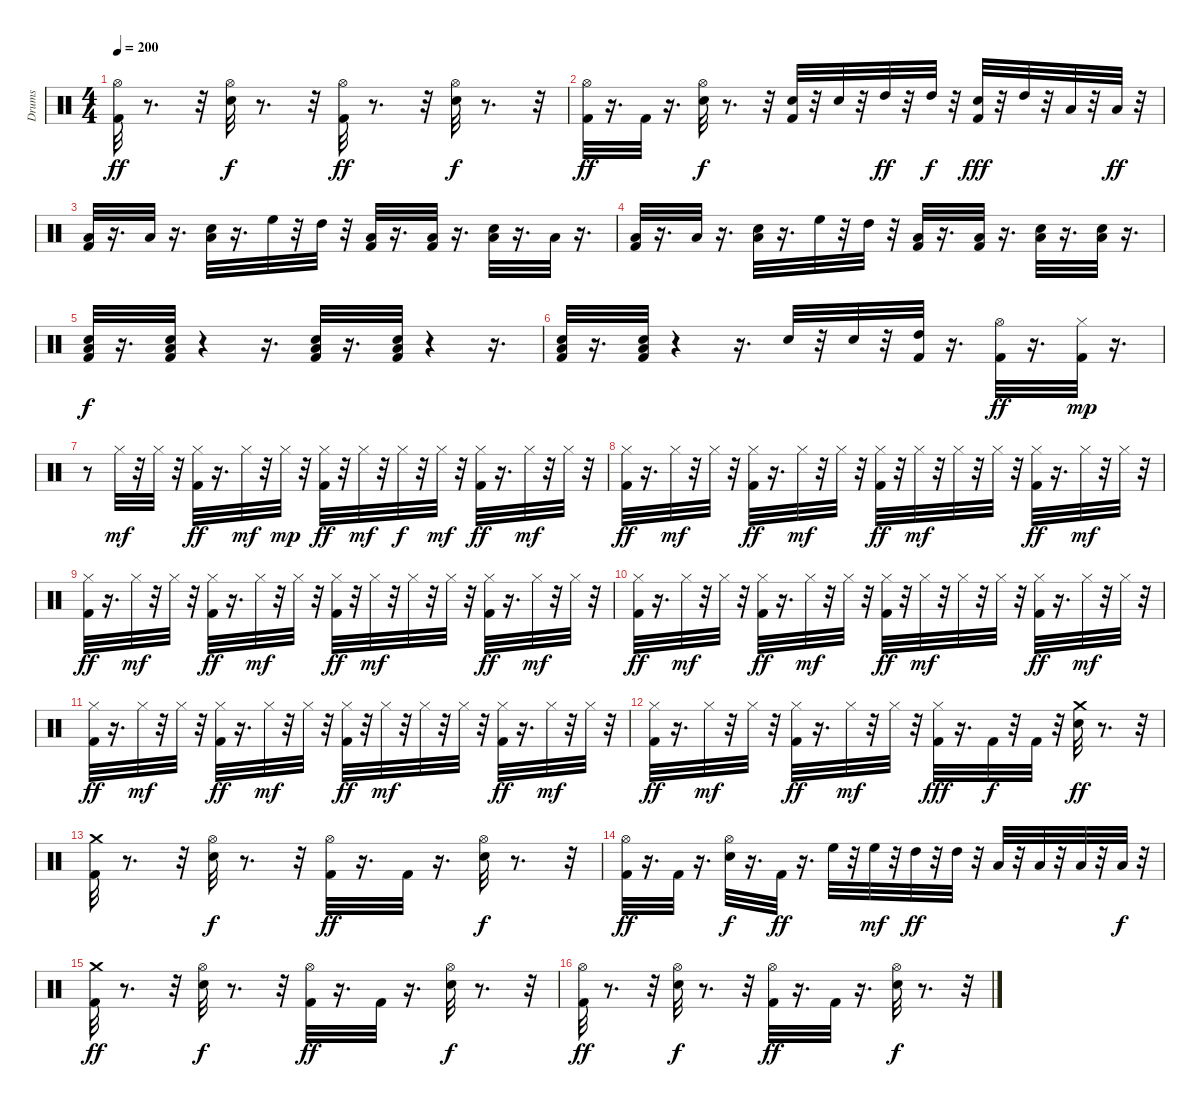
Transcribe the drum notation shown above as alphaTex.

\track ("Drums" "Drums") {instrument percussion}
\staff {score}
\articulation defaults
\ts (4 4)
\tempo 200
\clef neutral
\ks c
("Hi-Hat (open)" "Kick (hit) 2").32{dy ff} r.8{d} r.32 ("Hi-Hat (open)" "Snare (hit) 2").32{dy f} r.8{d} r.32 ("Hi-Hat (open)" "Kick (hit) 2").32{dy ff} r.8{d} r.32 ("Hi-Hat (open)" "Snare (hit) 2").32{dy f} r.8{d} r.32 |
("Kick (hit) 2" "Hi-Hat (open)").32{dy ff} r.16{d} "Kick (hit) 2".32 r.16{d} ("Hi-Hat (open)" "Snare (hit) 2").32{dy f} r.8{d} r.32 ("Snare (hit) 2" "Kick (hit) 2").32 r.32 "Snare (hit) 2".32 r.32 "High Tom (hit)".32{dy ff} r.32 "High Tom (hit)".32{dy f} r.32 ("Snare (hit) 2" "Kick (hit) 2").32{dy fff} r.32 "High Tom (hit)".32 r.32 "Low Floor Tom (hit)".32 r.32 "Low Floor Tom (hit)".32{dy ff} r.32 |
("Low Floor Tom (hit)" "Kick (hit) 2").32 r.16{d} "Low Floor Tom (hit)".32 r.16{d} ("Low Floor Tom (hit)" "Snare (hit) 2").32 r.16{d} "High Floor Tom (hit)".32 r.32 "High Tom (hit)".32 r.32 ("Low Floor Tom (hit)" "Kick (hit) 2").32 r.16{d} ("Low Floor Tom (hit)" "Kick (hit) 2").32 r.16{d} ("Low Floor Tom (hit)" "Snare (hit) 2").32 r.16{d} "Low Floor Tom (hit)".32 r.16{d} |
("Low Floor Tom (hit)" "Kick (hit) 2").32 r.16{d} "Low Floor Tom (hit)".32 r.16{d} ("Low Floor Tom (hit)" "Snare (hit) 2").32 r.16{d} "High Floor Tom (hit)".32 r.32 "High Tom (hit)".32 r.32 ("Low Floor Tom (hit)" "Kick (hit) 2").32 r.16{d} ("Low Floor Tom (hit)" "Kick (hit) 2").32 r.16{d} ("Snare (hit) 2" "Low Floor Tom (hit)").32 r.16{d} ("Snare (hit) 2" "Low Floor Tom (hit)").32 r.16{d} |
("Kick (hit) 2" "Low Floor Tom (hit)" "Snare (hit) 2").32{dy f} r.16{d} ("Kick (hit) 2" "Low Floor Tom (hit)" "Snare (hit) 2").32 r.4 r.16{d} ("Low Floor Tom (hit)" "Snare (hit) 2" "Kick (hit) 2").32 r.16{d} ("Low Floor Tom (hit)" "Snare (hit) 2" "Kick (hit) 2").32 r.4 r.16{d} |
("Snare (hit) 2" "Kick (hit) 2" "Low Floor Tom (hit)").32 r.16{d} ("Snare (hit) 2" "Kick (hit) 2" "Low Floor Tom (hit)").32 r.4 r.16{d} "Snare (hit) 2".32 r.32 "Snare (hit) 2".32 r.32 ("High Tom (hit)" "Kick (hit) 2").32 r.16{d} ("Hi-Hat (open)" "Kick (hit) 2").32{dy ff} r.16{d} ("Hi-Hat (closed)" "Kick (hit) 2").32{dy mp} r.16{d} |
r.8 "Hi-Hat (closed)".32{dy mf} r.32 "Hi-Hat (closed)".32 r.32 ("Hi-Hat (closed)" "Kick (hit) 2").32{dy ff} r.16{d} "Hi-Hat (closed)".32{dy mf} r.32 "Hi-Hat (closed)".32{dy mp} r.32 ("Hi-Hat (closed)" "Kick (hit) 2").32{dy ff} r.32 "Hi-Hat (closed)".32{dy mf} r.32 "Hi-Hat (closed)".32{dy f} r.32 "Hi-Hat (closed)".32{dy mf} r.32 ("Hi-Hat (closed)" "Kick (hit) 2").32{dy ff} r.16{d} "Hi-Hat (closed)".32{dy mf} r.32 "Hi-Hat (closed)".32 r.32 |
("Hi-Hat (closed)" "Kick (hit) 2").32{dy ff} r.16{d} "Hi-Hat (closed)".32{dy mf} r.32 "Hi-Hat (closed)".32 r.32 ("Hi-Hat (closed)" "Kick (hit) 2").32{dy ff} r.16{d} "Hi-Hat (closed)".32{dy mf} r.32 "Hi-Hat (closed)".32 r.32 ("Hi-Hat (closed)" "Kick (hit) 2").32{dy ff} r.32 "Hi-Hat (closed)".32{dy mf} r.32 "Hi-Hat (closed)".32 r.32 "Hi-Hat (closed)".32 r.32 ("Hi-Hat (closed)" "Kick (hit) 2").32{dy ff} r.16{d} "Hi-Hat (closed)".32{dy mf} r.32 "Hi-Hat (closed)".32 r.32 |
("Hi-Hat (closed)" "Kick (hit) 2").32{dy ff} r.16{d} "Hi-Hat (closed)".32{dy mf} r.32 "Hi-Hat (closed)".32 r.32 ("Hi-Hat (closed)" "Kick (hit) 2").32{dy ff} r.16{d} "Hi-Hat (closed)".32{dy mf} r.32 "Hi-Hat (closed)".32 r.32 ("Hi-Hat (closed)" "Kick (hit) 2").32{dy ff} r.32 "Hi-Hat (closed)".32{dy mf} r.32 "Hi-Hat (closed)".32 r.32 "Hi-Hat (closed)".32 r.32 ("Hi-Hat (closed)" "Kick (hit) 2").32{dy ff} r.16{d} "Hi-Hat (closed)".32{dy mf} r.32 "Hi-Hat (closed)".32 r.32 |
("Hi-Hat (closed)" "Kick (hit) 2").32{dy ff} r.16{d} "Hi-Hat (closed)".32{dy mf} r.32 "Hi-Hat (closed)".32 r.32 ("Hi-Hat (closed)" "Kick (hit) 2").32{dy ff} r.16{d} "Hi-Hat (closed)".32{dy mf} r.32 "Hi-Hat (closed)".32 r.32 ("Hi-Hat (closed)" "Kick (hit) 2").32{dy ff} r.32 "Hi-Hat (closed)".32{dy mf} r.32 "Hi-Hat (closed)".32 r.32 "Hi-Hat (closed)".32 r.32 ("Hi-Hat (closed)" "Kick (hit) 2").32{dy ff} r.16{d} "Hi-Hat (closed)".32{dy mf} r.32 "Hi-Hat (closed)".32 r.32 |
("Hi-Hat (closed)" "Kick (hit) 2").32{dy ff} r.16{d} "Hi-Hat (closed)".32{dy mf} r.32 "Hi-Hat (closed)".32 r.32 ("Hi-Hat (closed)" "Kick (hit) 2").32{dy ff} r.16{d} "Hi-Hat (closed)".32{dy mf} r.32 "Hi-Hat (closed)".32 r.32 ("Hi-Hat (closed)" "Kick (hit) 2").32{dy ff} r.32 "Hi-Hat (closed)".32{dy mf} r.32 "Hi-Hat (closed)".32 r.32 "Hi-Hat (closed)".32 r.32 ("Hi-Hat (closed)" "Kick (hit) 2").32{dy ff} r.16{d} "Hi-Hat (closed)".32{dy mf} r.32 "Hi-Hat (closed)".32 r.32 |
("Hi-Hat (closed)" "Kick (hit) 2").32{dy ff} r.16{d} "Hi-Hat (closed)".32{dy mf} r.32 "Hi-Hat (closed)".32 r.32 ("Hi-Hat (closed)" "Kick (hit) 2").32{dy ff} r.16{d} "Hi-Hat (closed)".32{dy mf} r.32 "Hi-Hat (closed)".32 r.32 ("Hi-Hat (closed)" "Kick (hit) 2").32{dy fff} r.16{d} "Kick (hit) 2".32{dy f} r.32 "Kick (hit) 2".32 r.32 ("Crash medium (hit)" "Snare (hit) 2").32{dy ff} r.8{d} r.32 |
("Crash medium (hit)" "Kick (hit) 2").32 r.8{d} r.32 ("Hi-Hat (open)" "Snare (hit) 2").32{dy f} r.8{d} r.32 ("Hi-Hat (open)" "Kick (hit) 2").32{dy ff} r.16{d} "Kick (hit) 2".32 r.16{d} ("Hi-Hat (open)" "Snare (hit) 2").32{dy f} r.8{d} r.32 |
("Kick (hit) 2" "Hi-Hat (open)").32{dy ff} r.16{d} "Kick (hit) 2".32 r.16{d} ("Hi-Hat (open)" "Snare (hit) 2").32{dy f} r.16{d} "Kick (hit) 2".32{dy ff} r.16{d} "High Floor Tom (hit)".32 r.32 "High Floor Tom (hit)".32{dy mf} r.32 "High Tom (hit)".32{dy ff} r.32 "High Tom (hit)".32 r.32 "Low Tom (hit)".32 r.32 "Low Tom (hit)".32 r.32 "Low Floor Tom (hit)".32 r.32 "Low Floor Tom (hit)".32{dy f} r.32 |
("Crash medium (hit)" "Kick (hit) 2").32{dy ff} r.8{d} r.32 ("Hi-Hat (open)" "Snare (hit) 2").32{dy f} r.8{d} r.32 ("Hi-Hat (open)" "Kick (hit) 2").32{dy ff} r.16{d} "Kick (hit) 2".32 r.16{d} ("Snare (hit) 2" "Hi-Hat (open)").32{dy f} r.8{d} r.32 |
("Kick (hit) 2" "Hi-Hat (open)").32{dy ff} r.8{d} r.32 ("Snare (hit) 2" "Hi-Hat (open)").32{dy f} r.8{d} r.32 ("Kick (hit) 2" "Hi-Hat (open)").32{dy ff} r.16{d} "Kick (hit) 2".32 r.16{d} ("Snare (hit) 2" "Hi-Hat (open)").32{dy f} r.8{d} r.32
